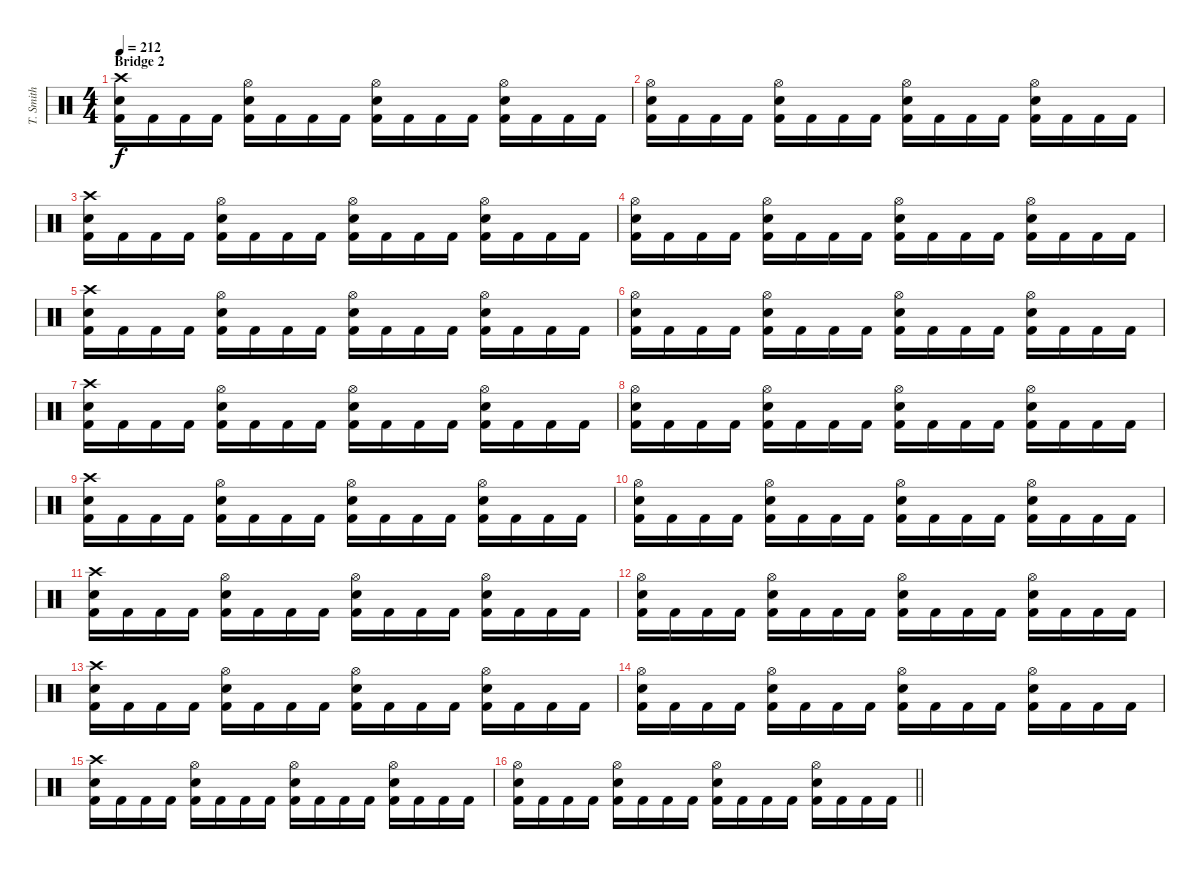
\track ("T. Smith" "T. Smith") {instrument percussion}
\staff {score}
\articulation defaults
\ts (4 4)
\section ("" "Bridge 2")
\tempo 212
\clef neutral
\ks c
("Crash high (hit)" "Electric Snare (hit)" "Kick (hit) 2").16{dy f} "Kick (hit) 2".16 "Kick (hit) 2".16 "Kick (hit) 2".16 ("Hi-Hat (open)" "Electric Snare (hit)" "Kick (hit) 2").16 "Kick (hit) 2".16 "Kick (hit) 2".16 "Kick (hit) 2".16 ("Hi-Hat (open)" "Electric Snare (hit)" "Kick (hit) 2").16 "Kick (hit) 2".16 "Kick (hit) 2".16 "Kick (hit) 2".16 ("Hi-Hat (open)" "Electric Snare (hit)" "Kick (hit) 2").16 "Kick (hit) 2".16 "Kick (hit) 2".16 "Kick (hit) 2".16 |
("Hi-Hat (open)" "Electric Snare (hit)" "Kick (hit) 2").16 "Kick (hit) 2".16 "Kick (hit) 2".16 "Kick (hit) 2".16 ("Hi-Hat (open)" "Electric Snare (hit)" "Kick (hit) 2").16 "Kick (hit) 2".16 "Kick (hit) 2".16 "Kick (hit) 2".16 ("Hi-Hat (open)" "Electric Snare (hit)" "Kick (hit) 2").16 "Kick (hit) 2".16 "Kick (hit) 2".16 "Kick (hit) 2".16 ("Hi-Hat (open)" "Electric Snare (hit)" "Kick (hit) 2").16 "Kick (hit) 2".16 "Kick (hit) 2".16 "Kick (hit) 2".16 |
("Crash high (hit)" "Electric Snare (hit)" "Kick (hit) 2").16 "Kick (hit) 2".16 "Kick (hit) 2".16 "Kick (hit) 2".16 ("Hi-Hat (open)" "Electric Snare (hit)" "Kick (hit) 2").16 "Kick (hit) 2".16 "Kick (hit) 2".16 "Kick (hit) 2".16 ("Hi-Hat (open)" "Electric Snare (hit)" "Kick (hit) 2").16 "Kick (hit) 2".16 "Kick (hit) 2".16 "Kick (hit) 2".16 ("Hi-Hat (open)" "Electric Snare (hit)" "Kick (hit) 2").16 "Kick (hit) 2".16 "Kick (hit) 2".16 "Kick (hit) 2".16 |
("Hi-Hat (open)" "Electric Snare (hit)" "Kick (hit) 2").16 "Kick (hit) 2".16 "Kick (hit) 2".16 "Kick (hit) 2".16 ("Hi-Hat (open)" "Electric Snare (hit)" "Kick (hit) 2").16 "Kick (hit) 2".16 "Kick (hit) 2".16 "Kick (hit) 2".16 ("Hi-Hat (open)" "Electric Snare (hit)" "Kick (hit) 2").16 "Kick (hit) 2".16 "Kick (hit) 2".16 "Kick (hit) 2".16 ("Hi-Hat (open)" "Electric Snare (hit)" "Kick (hit) 2").16 "Kick (hit) 2".16 "Kick (hit) 2".16 "Kick (hit) 2".16 |
("Crash high (hit)" "Electric Snare (hit)" "Kick (hit) 2").16 "Kick (hit) 2".16 "Kick (hit) 2".16 "Kick (hit) 2".16 ("Hi-Hat (open)" "Electric Snare (hit)" "Kick (hit) 2").16 "Kick (hit) 2".16 "Kick (hit) 2".16 "Kick (hit) 2".16 ("Hi-Hat (open)" "Electric Snare (hit)" "Kick (hit) 2").16 "Kick (hit) 2".16 "Kick (hit) 2".16 "Kick (hit) 2".16 ("Hi-Hat (open)" "Electric Snare (hit)" "Kick (hit) 2").16 "Kick (hit) 2".16 "Kick (hit) 2".16 "Kick (hit) 2".16 |
("Hi-Hat (open)" "Electric Snare (hit)" "Kick (hit) 2").16 "Kick (hit) 2".16 "Kick (hit) 2".16 "Kick (hit) 2".16 ("Hi-Hat (open)" "Electric Snare (hit)" "Kick (hit) 2").16 "Kick (hit) 2".16 "Kick (hit) 2".16 "Kick (hit) 2".16 ("Hi-Hat (open)" "Electric Snare (hit)" "Kick (hit) 2").16 "Kick (hit) 2".16 "Kick (hit) 2".16 "Kick (hit) 2".16 ("Hi-Hat (open)" "Electric Snare (hit)" "Kick (hit) 2").16 "Kick (hit) 2".16 "Kick (hit) 2".16 "Kick (hit) 2".16 |
("Crash high (hit)" "Electric Snare (hit)" "Kick (hit) 2").16 "Kick (hit) 2".16 "Kick (hit) 2".16 "Kick (hit) 2".16 ("Hi-Hat (open)" "Electric Snare (hit)" "Kick (hit) 2").16 "Kick (hit) 2".16 "Kick (hit) 2".16 "Kick (hit) 2".16 ("Hi-Hat (open)" "Electric Snare (hit)" "Kick (hit) 2").16 "Kick (hit) 2".16 "Kick (hit) 2".16 "Kick (hit) 2".16 ("Hi-Hat (open)" "Electric Snare (hit)" "Kick (hit) 2").16 "Kick (hit) 2".16 "Kick (hit) 2".16 "Kick (hit) 2".16 |
("Hi-Hat (open)" "Electric Snare (hit)" "Kick (hit) 2").16 "Kick (hit) 2".16 "Kick (hit) 2".16 "Kick (hit) 2".16 ("Hi-Hat (open)" "Electric Snare (hit)" "Kick (hit) 2").16 "Kick (hit) 2".16 "Kick (hit) 2".16 "Kick (hit) 2".16 ("Hi-Hat (open)" "Electric Snare (hit)" "Kick (hit) 2").16 "Kick (hit) 2".16 "Kick (hit) 2".16 "Kick (hit) 2".16 ("Hi-Hat (open)" "Electric Snare (hit)" "Kick (hit) 2").16 "Kick (hit) 2".16 "Kick (hit) 2".16 "Kick (hit) 2".16 |
("Crash high (hit)" "Electric Snare (hit)" "Kick (hit) 2").16 "Kick (hit) 2".16 "Kick (hit) 2".16 "Kick (hit) 2".16 ("Hi-Hat (open)" "Electric Snare (hit)" "Kick (hit) 2").16 "Kick (hit) 2".16 "Kick (hit) 2".16 "Kick (hit) 2".16 ("Hi-Hat (open)" "Electric Snare (hit)" "Kick (hit) 2").16 "Kick (hit) 2".16 "Kick (hit) 2".16 "Kick (hit) 2".16 ("Hi-Hat (open)" "Electric Snare (hit)" "Kick (hit) 2").16 "Kick (hit) 2".16 "Kick (hit) 2".16 "Kick (hit) 2".16 |
("Hi-Hat (open)" "Electric Snare (hit)" "Kick (hit) 2").16 "Kick (hit) 2".16 "Kick (hit) 2".16 "Kick (hit) 2".16 ("Hi-Hat (open)" "Electric Snare (hit)" "Kick (hit) 2").16 "Kick (hit) 2".16 "Kick (hit) 2".16 "Kick (hit) 2".16 ("Hi-Hat (open)" "Electric Snare (hit)" "Kick (hit) 2").16 "Kick (hit) 2".16 "Kick (hit) 2".16 "Kick (hit) 2".16 ("Hi-Hat (open)" "Electric Snare (hit)" "Kick (hit) 2").16 "Kick (hit) 2".16 "Kick (hit) 2".16 "Kick (hit) 2".16 |
("Crash high (hit)" "Electric Snare (hit)" "Kick (hit) 2").16 "Kick (hit) 2".16 "Kick (hit) 2".16 "Kick (hit) 2".16 ("Hi-Hat (open)" "Electric Snare (hit)" "Kick (hit) 2").16 "Kick (hit) 2".16 "Kick (hit) 2".16 "Kick (hit) 2".16 ("Hi-Hat (open)" "Electric Snare (hit)" "Kick (hit) 2").16 "Kick (hit) 2".16 "Kick (hit) 2".16 "Kick (hit) 2".16 ("Hi-Hat (open)" "Electric Snare (hit)" "Kick (hit) 2").16 "Kick (hit) 2".16 "Kick (hit) 2".16 "Kick (hit) 2".16 |
("Hi-Hat (open)" "Electric Snare (hit)" "Kick (hit) 2").16 "Kick (hit) 2".16 "Kick (hit) 2".16 "Kick (hit) 2".16 ("Hi-Hat (open)" "Electric Snare (hit)" "Kick (hit) 2").16 "Kick (hit) 2".16 "Kick (hit) 2".16 "Kick (hit) 2".16 ("Hi-Hat (open)" "Electric Snare (hit)" "Kick (hit) 2").16 "Kick (hit) 2".16 "Kick (hit) 2".16 "Kick (hit) 2".16 ("Hi-Hat (open)" "Electric Snare (hit)" "Kick (hit) 2").16 "Kick (hit) 2".16 "Kick (hit) 2".16 "Kick (hit) 2".16 |
("Crash high (hit)" "Electric Snare (hit)" "Kick (hit) 2").16 "Kick (hit) 2".16 "Kick (hit) 2".16 "Kick (hit) 2".16 ("Hi-Hat (open)" "Electric Snare (hit)" "Kick (hit) 2").16 "Kick (hit) 2".16 "Kick (hit) 2".16 "Kick (hit) 2".16 ("Hi-Hat (open)" "Electric Snare (hit)" "Kick (hit) 2").16 "Kick (hit) 2".16 "Kick (hit) 2".16 "Kick (hit) 2".16 ("Hi-Hat (open)" "Electric Snare (hit)" "Kick (hit) 2").16 "Kick (hit) 2".16 "Kick (hit) 2".16 "Kick (hit) 2".16 |
("Hi-Hat (open)" "Electric Snare (hit)" "Kick (hit) 2").16 "Kick (hit) 2".16 "Kick (hit) 2".16 "Kick (hit) 2".16 ("Hi-Hat (open)" "Electric Snare (hit)" "Kick (hit) 2").16 "Kick (hit) 2".16 "Kick (hit) 2".16 "Kick (hit) 2".16 ("Hi-Hat (open)" "Electric Snare (hit)" "Kick (hit) 2").16 "Kick (hit) 2".16 "Kick (hit) 2".16 "Kick (hit) 2".16 ("Hi-Hat (open)" "Electric Snare (hit)" "Kick (hit) 2").16 "Kick (hit) 2".16 "Kick (hit) 2".16 "Kick (hit) 2".16 |
("Crash high (hit)" "Electric Snare (hit)" "Kick (hit) 2").16 "Kick (hit) 2".16 "Kick (hit) 2".16 "Kick (hit) 2".16 ("Hi-Hat (open)" "Electric Snare (hit)" "Kick (hit) 2").16 "Kick (hit) 2".16 "Kick (hit) 2".16 "Kick (hit) 2".16 ("Hi-Hat (open)" "Electric Snare (hit)" "Kick (hit) 2").16 "Kick (hit) 2".16 "Kick (hit) 2".16 "Kick (hit) 2".16 ("Hi-Hat (open)" "Electric Snare (hit)" "Kick (hit) 2").16 "Kick (hit) 2".16 "Kick (hit) 2".16 "Kick (hit) 2".16 |
\barLineRight lightlight
("Hi-Hat (open)" "Electric Snare (hit)" "Kick (hit) 2").16 "Kick (hit) 2".16 "Kick (hit) 2".16 "Kick (hit) 2".16 ("Hi-Hat (open)" "Electric Snare (hit)" "Kick (hit) 2").16 "Kick (hit) 2".16 "Kick (hit) 2".16 "Kick (hit) 2".16 ("Hi-Hat (open)" "Electric Snare (hit)" "Kick (hit) 2").16 "Kick (hit) 2".16 "Kick (hit) 2".16 "Kick (hit) 2".16 ("Hi-Hat (open)" "Electric Snare (hit)" "Kick (hit) 2").16 "Kick (hit) 2".16 "Kick (hit) 2".16 "Kick (hit) 2".16
